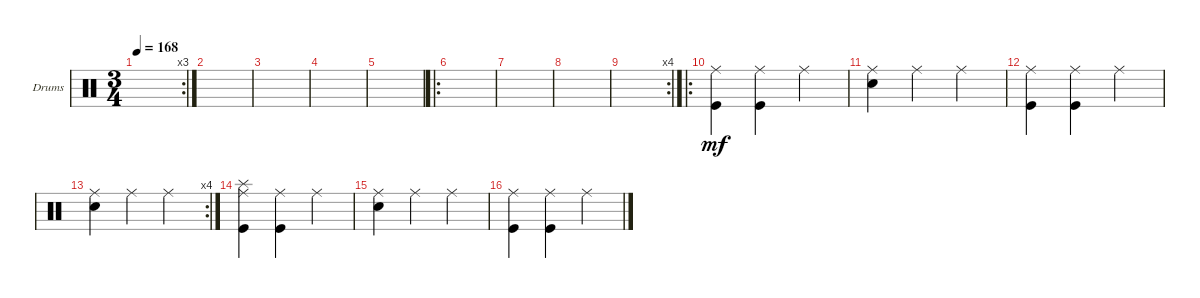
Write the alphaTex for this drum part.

\defaultSystemsLayout 4
\bracketExtendMode groupsimilarinstruments
\firstSystemTrackNameOrientation horizontal
\otherSystemsTrackNameOrientation horizontal
\track ("Drumkit" "Drums") {instrument percussion}
\staff {score}
\articulation defaults
\rc 3
\ts (3 4)
\tempo 168
\clef neutral
\ks c
|
|
|
|
|
\ro
|
|
|
\rc 4
|
\ro
("Ride (middle)" "Kick (hit)").4{dy mf} ("Ride (middle)" "Kick (hit)").4 "Ride (middle)".4 |
("Ride (middle)" "Snare (hit) 2").4 "Ride (middle)".4 "Ride (middle)".4 |
("Ride (middle)" "Kick (hit)").4 ("Ride (middle)" "Kick (hit)").4 "Ride (middle)".4 |
\rc 4
("Ride (middle)" "Snare (hit) 2").4 "Ride (middle)".4 "Ride (middle)".4 |
("Ride (middle)" "Kick (hit)" "Splash (hit)").4 ("Ride (middle)" "Kick (hit)").4 "Ride (middle)".4 |
("Ride (middle)" "Snare (hit) 2").4 "Ride (middle)".4 "Ride (middle)".4 |
("Ride (middle)" "Kick (hit)").4 ("Ride (middle)" "Kick (hit)").4 "Ride (middle)".4
